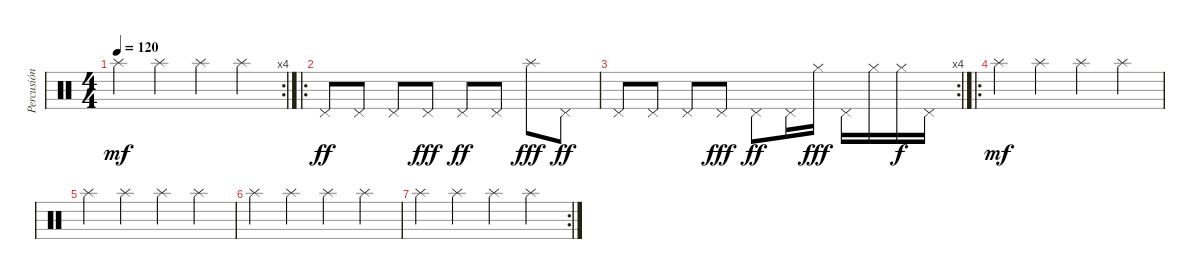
\track ("Percusión" "Percusión") {instrument percussion}
\staff {score}
\articulation defaults
\rc 4
\ts (4 4)
\tempo 120
\clef neutral
\ks c "Splash (hit)".4{dy mf} "Splash (hit)".4 "Splash (hit)".4 "Splash (hit)".4
|
\ro "Pedal Hi-Hat (hit)".8{dy ff} "Pedal Hi-Hat (hit)".8 "Pedal Hi-Hat (hit)".8 "Pedal Hi-Hat (hit)".8{dy fff} "Pedal Hi-Hat (hit)".8{dy ff} "Pedal Hi-Hat (hit)".8 "Splash (hit)".8{dy fff} "Pedal Hi-Hat (hit)".8{dy ff}
|
\rc 4 "Pedal Hi-Hat (hit)".8 "Pedal Hi-Hat (hit)".8 "Pedal Hi-Hat (hit)".8 "Pedal Hi-Hat (hit)".8{dy fff} "Pedal Hi-Hat (hit)".8{dy ff} "Pedal Hi-Hat (hit)".16 "Hi-Hat (closed)".16{dy fff} "Pedal Hi-Hat (hit)".16 "Hi-Hat (closed)".16 "Hi-Hat (closed)".16{dy f} "Pedal Hi-Hat (hit)".16
|
\ro "Splash (hit)".4{dy mf} "Splash (hit)".4 "Splash (hit)".4 "Splash (hit)".4
|
"Splash (hit)".4 "Splash (hit)".4 "Splash (hit)".4 "Splash (hit)".4 |
"Splash (hit)".4 "Splash (hit)".4 "Splash (hit)".4 "Splash (hit)".4 |
\rc 2 "Splash (hit)".4 "Splash (hit)".4 "Splash (hit)".4 "Splash (hit)".4
